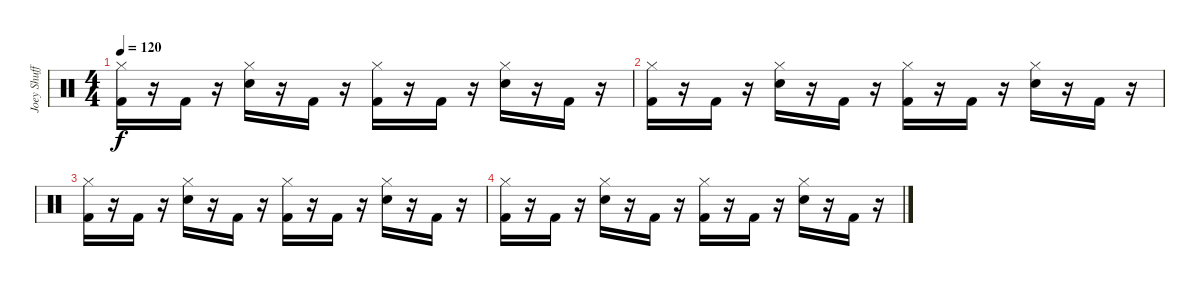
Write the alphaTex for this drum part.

\track ("Joey Shuffield" "Joey Shuff") {instrument percussion}
\staff {score}
\articulation defaults
\ts (4 4)
\tempo 120
\clef neutral
\ks c
("Kick (hit) 2" "Hi-Hat (closed)").16{dy f} r.16 "Kick (hit) 2".16 r.16 ("Snare (hit) 2" "Hi-Hat (closed)").16 r.16 "Kick (hit) 2".16 r.16 ("Kick (hit) 2" "Hi-Hat (closed)").16 r.16 "Kick (hit) 2".16 r.16 ("Snare (hit) 2" "Hi-Hat (closed)").16 r.16 "Kick (hit) 2".16 r.16 |
("Kick (hit) 2" "Hi-Hat (closed)").16 r.16 "Kick (hit) 2".16 r.16 ("Snare (hit) 2" "Hi-Hat (closed)").16 r.16 "Kick (hit) 2".16 r.16 ("Kick (hit) 2" "Hi-Hat (closed)").16 r.16 "Kick (hit) 2".16 r.16 ("Snare (hit) 2" "Hi-Hat (closed)").16 r.16 "Kick (hit) 2".16 r.16 |
("Kick (hit) 2" "Hi-Hat (closed)").16 r.16 "Kick (hit) 2".16 r.16 ("Snare (hit) 2" "Hi-Hat (closed)").16 r.16 "Kick (hit) 2".16 r.16 ("Kick (hit) 2" "Hi-Hat (closed)").16 r.16 "Kick (hit) 2".16 r.16 ("Snare (hit) 2" "Hi-Hat (closed)").16 r.16 "Kick (hit) 2".16 r.16 |
("Kick (hit) 2" "Hi-Hat (closed)").16 r.16 "Kick (hit) 2".16 r.16 ("Snare (hit) 2" "Hi-Hat (closed)").16 r.16 "Kick (hit) 2".16 r.16 ("Kick (hit) 2" "Hi-Hat (closed)").16 r.16 "Kick (hit) 2".16 r.16 ("Snare (hit) 2" "Hi-Hat (closed)").16 r.16 "Kick (hit) 2".16 r.16
